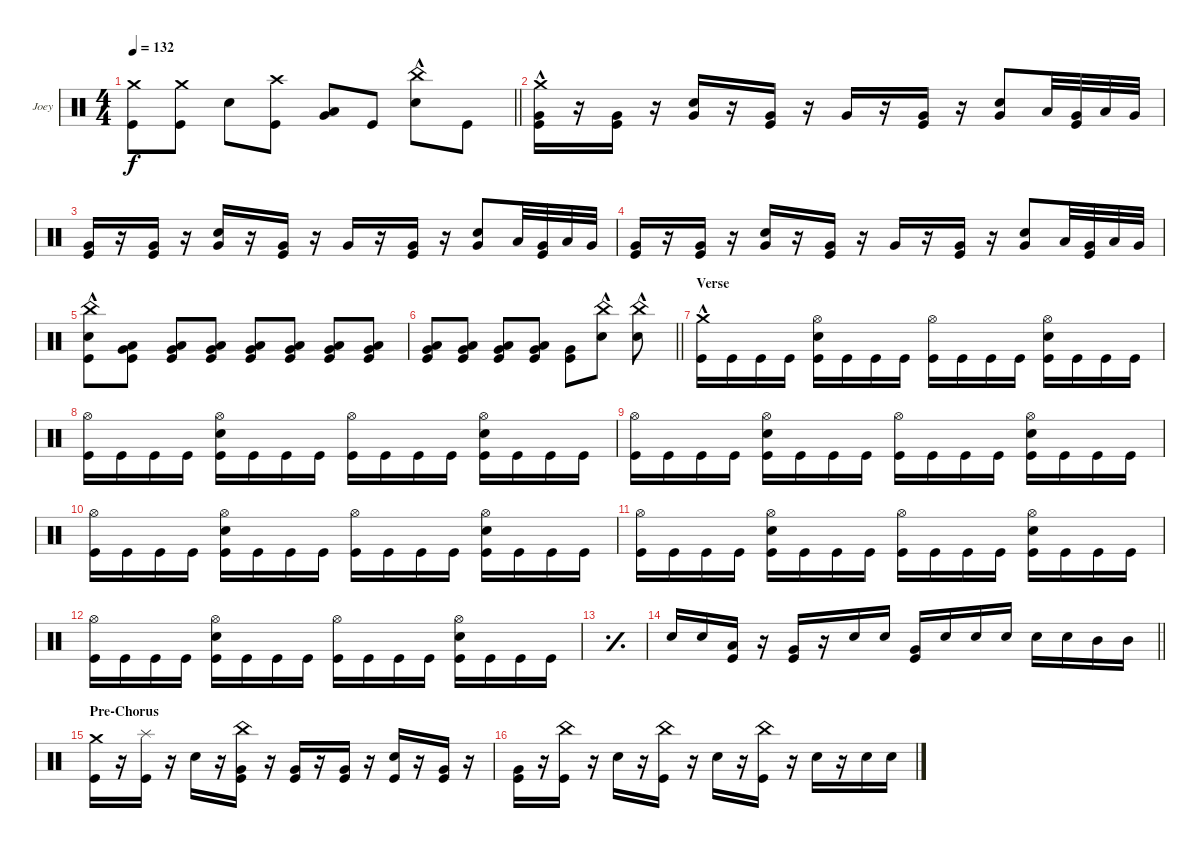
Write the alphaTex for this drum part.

\bracketExtendMode groupsimilarinstruments
\firstSystemTrackNameOrientation horizontal
\otherSystemsTrackNameOrientation horizontal
\track ("Joey Jordison" "Joey") {instrument percussion}
\staff {score}
\articulation defaults
\ts (4 4)
\tempo 132
\clef neutral
\barLineRight lightlight
\ks c
("Crash medium (hit)" "Kick (hit)").8{dy f} ("Kick (hit)" "Crash medium (hit)").8 "Snare (hit) 2".8 ("Kick (hit)" "Crash high (hit)").8 ("Very Low Tom (hit)" "Low Tom (hit)").8 "Kick (hit)".8 ("Snare (hit) 2" "China (hit)"{hac}).8 "Kick (hit)".8 |
("Very Low Tom (hit)" "Kick (hit)" "Crash medium (hit)"{hac}).16 r.16 ("Very Low Tom (hit)" "Kick (hit)").16 r.16 ("Very Low Tom (hit)" "Snare (hit) 2").16 r.16 ("Very Low Tom (hit)" "Kick (hit)").16 r.16 "Very Low Tom (hit)".16 r.16 ("Very Low Tom (hit)" "Kick (hit)").16 r.16 ("Very Low Tom (hit)" "Snare (hit) 2").8 "Low Tom (hit)".32 ("Very Low Tom (hit)" "Kick (hit)").32 "Low Tom (hit)".32 "Very Low Tom (hit)".32 |
("Very Low Tom (hit)" "Kick (hit)").16 r.16 ("Very Low Tom (hit)" "Kick (hit)").16 r.16 ("Very Low Tom (hit)" "Snare (hit) 2").16 r.16 ("Very Low Tom (hit)" "Kick (hit)").16 r.16 "Very Low Tom (hit)".16 r.16 ("Very Low Tom (hit)" "Kick (hit)").16 r.16 ("Very Low Tom (hit)" "Snare (hit) 2").8 "Low Tom (hit)".32 ("Very Low Tom (hit)" "Kick (hit)").32 "Low Tom (hit)".32 "Very Low Tom (hit)".32 |
("Very Low Tom (hit)" "Kick (hit)").16 r.16 ("Very Low Tom (hit)" "Kick (hit)").16 r.16 ("Very Low Tom (hit)" "Snare (hit) 2").16 r.16 ("Very Low Tom (hit)" "Kick (hit)").16 r.16 "Very Low Tom (hit)".16 r.16 ("Very Low Tom (hit)" "Kick (hit)").16 r.16 ("Very Low Tom (hit)" "Snare (hit) 2").8 "Low Tom (hit)".32 ("Very Low Tom (hit)" "Kick (hit)").32 "Low Tom (hit)".32 "Very Low Tom (hit)".32 |
("China (hit)"{hac} "Snare (hit) 2" "Kick (hit)").8 ("Very Low Tom (hit)" "Kick (hit)" "Low Tom (hit)").8 ("Very Low Tom (hit)" "Kick (hit)" "Low Tom (hit)").8 ("Very Low Tom (hit)" "Kick (hit)" "Low Tom (hit)").8 ("Very Low Tom (hit)" "Kick (hit)" "Low Tom (hit)").8 ("Very Low Tom (hit)" "Kick (hit)" "Low Tom (hit)").8 ("Very Low Tom (hit)" "Kick (hit)" "Low Tom (hit)").8 ("Very Low Tom (hit)" "Kick (hit)" "Low Tom (hit)").8 |
\barLineRight lightlight
("Very Low Tom (hit)" "Kick (hit)" "Low Tom (hit)").8 ("Very Low Tom (hit)" "Kick (hit)" "Low Tom (hit)").8 ("Very Low Tom (hit)" "Kick (hit)" "Low Tom (hit)").8 ("Very Low Tom (hit)" "Kick (hit)" "Low Tom (hit)").8 ("Very Low Tom (hit)" "Kick (hit)").8 ("Snare (hit) 2" "China (hit)"{hac}).8 ("Snare (hit) 2" "China (hit)"{hac}).8 |
\section ("" "Verse")
("Crash medium (hit)"{hac} "Kick (hit)").16 "Kick (hit)".16 "Kick (hit)".16 "Kick (hit)".16 ("Snare (hit) 2" "Kick (hit)" "Hi-Hat (open)").16 "Kick (hit)".16 "Kick (hit)".16 "Kick (hit)".16 ("Kick (hit)" "Hi-Hat (open)").16 "Kick (hit)".16 "Kick (hit)".16 "Kick (hit)".16 ("Snare (hit) 2" "Kick (hit)" "Hi-Hat (open)").16 "Kick (hit)".16 "Kick (hit)".16 "Kick (hit)".16 |
("Kick (hit)" "Hi-Hat (open)").16 "Kick (hit)".16 "Kick (hit)".16 "Kick (hit)".16 ("Snare (hit) 2" "Kick (hit)" "Hi-Hat (open)").16 "Kick (hit)".16 "Kick (hit)".16 "Kick (hit)".16 ("Kick (hit)" "Hi-Hat (open)").16 "Kick (hit)".16 "Kick (hit)".16 "Kick (hit)".16 ("Snare (hit) 2" "Kick (hit)" "Hi-Hat (open)").16 "Kick (hit)".16 "Kick (hit)".16 "Kick (hit)".16 |
("Kick (hit)" "Hi-Hat (open)").16 "Kick (hit)".16 "Kick (hit)".16 "Kick (hit)".16 ("Snare (hit) 2" "Kick (hit)" "Hi-Hat (open)").16 "Kick (hit)".16 "Kick (hit)".16 "Kick (hit)".16 ("Kick (hit)" "Hi-Hat (open)").16 "Kick (hit)".16 "Kick (hit)".16 "Kick (hit)".16 ("Snare (hit) 2" "Kick (hit)" "Hi-Hat (open)").16 "Kick (hit)".16 "Kick (hit)".16 "Kick (hit)".16 |
("Kick (hit)" "Hi-Hat (open)").16 "Kick (hit)".16 "Kick (hit)".16 "Kick (hit)".16 ("Snare (hit) 2" "Kick (hit)" "Hi-Hat (open)").16 "Kick (hit)".16 "Kick (hit)".16 "Kick (hit)".16 ("Kick (hit)" "Hi-Hat (open)").16 "Kick (hit)".16 "Kick (hit)".16 "Kick (hit)".16 ("Snare (hit) 2" "Kick (hit)" "Hi-Hat (open)").16 "Kick (hit)".16 "Kick (hit)".16 "Kick (hit)".16 |
("Kick (hit)" "Hi-Hat (open)").16 "Kick (hit)".16 "Kick (hit)".16 "Kick (hit)".16 ("Snare (hit) 2" "Kick (hit)" "Hi-Hat (open)").16 "Kick (hit)".16 "Kick (hit)".16 "Kick (hit)".16 ("Kick (hit)" "Hi-Hat (open)").16 "Kick (hit)".16 "Kick (hit)".16 "Kick (hit)".16 ("Snare (hit) 2" "Kick (hit)" "Hi-Hat (open)").16 "Kick (hit)".16 "Kick (hit)".16 "Kick (hit)".16 |
("Kick (hit)" "Hi-Hat (open)").16 "Kick (hit)".16 "Kick (hit)".16 "Kick (hit)".16 ("Snare (hit) 2" "Kick (hit)" "Hi-Hat (open)").16 "Kick (hit)".16 "Kick (hit)".16 "Kick (hit)".16 ("Kick (hit)" "Hi-Hat (open)").16 "Kick (hit)".16 "Kick (hit)".16 "Kick (hit)".16 ("Snare (hit) 2" "Kick (hit)" "Hi-Hat (open)").16 "Kick (hit)".16 "Kick (hit)".16 "Kick (hit)".16 |
\simile simple
|
\simile none
\barLineRight lightlight "Snare (hit) 2".16 "Snare (hit) 2".16
("Kick (hit)" "Low Tom (hit)").16 r.16 ("Kick (hit)" "Very Low Tom (hit)").16 r.16 "Snare (hit) 2".16 "Snare (hit) 2".16 ("Kick (hit)" "Very Low Tom (hit)").16 "Snare (hit) 2".16 "Snare (hit) 2".16 "Snare (hit) 2".16 "Snare (hit) 2".16 "Snare (hit) 2".16 "Mid Tom (hit)".16 "Mid Tom (hit)".16 |
\section ("" "Pre-Chorus")
("Crash medium (hit)" "Kick (hit)").16 r.16 ("Splash (hit)" "Kick (hit)").16 r.16 "Snare (hit) 2".16 r.16 ("China (hit)" "Very Low Tom (hit)" "Kick (hit)").16 r.16 ("Very Low Tom (hit)" "Kick (hit)").16 r.16 ("Very Low Tom (hit)" "Kick (hit)").16 r.16 ("Snare (hit) 2" "Kick (hit)").16 r.16 ("Very Low Tom (hit)" "Kick (hit)").16 r.16 |
("Very Low Tom (hit)" "Kick (hit)").16 r.16 ("China (hit)" "Kick (hit)").16 r.16 "Snare (hit) 2".16 r.16 ("China (hit)" "Kick (hit)").16 r.16 "Snare (hit) 2".16 r.16 ("China (hit)" "Kick (hit)").16 r.16 "Snare (hit) 2".16 r.16 "Snare (hit) 2".16 "Snare (hit) 2".16
